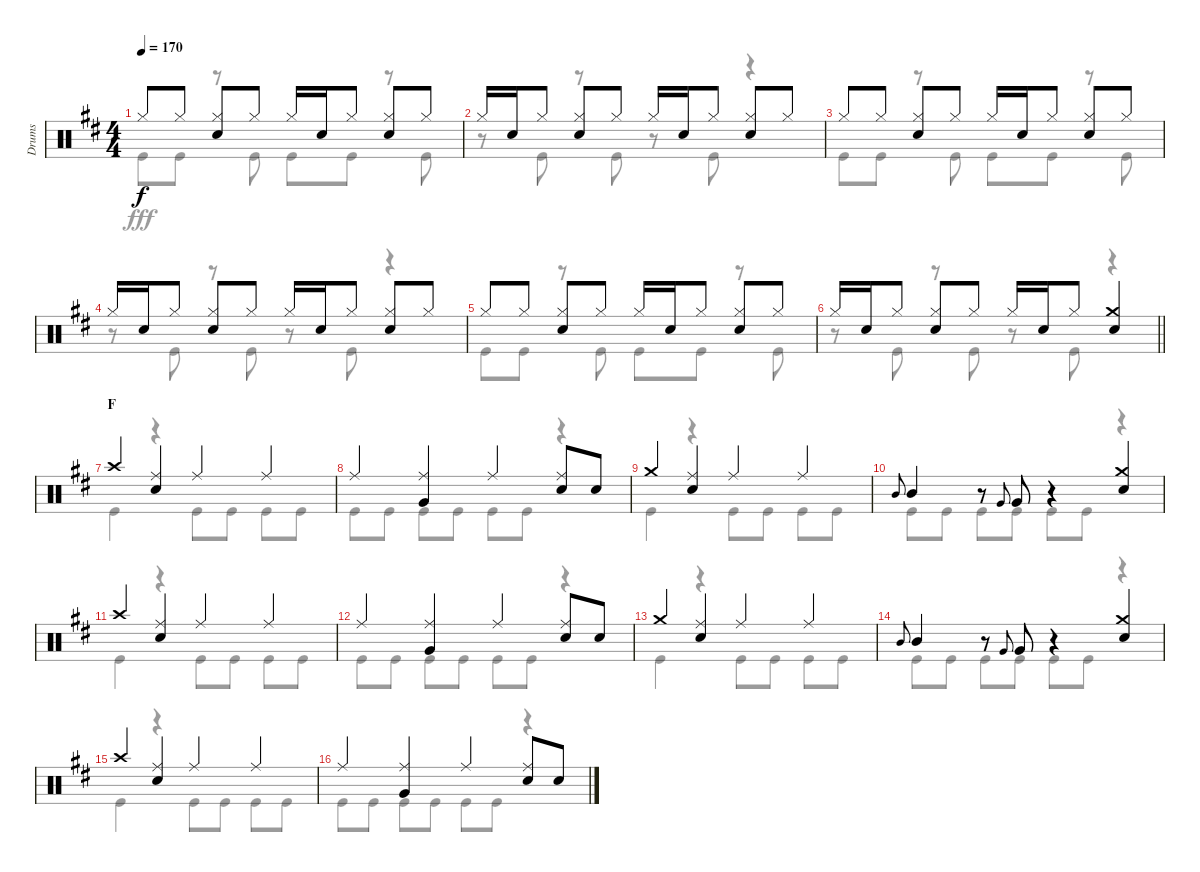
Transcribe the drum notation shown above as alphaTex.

\track ("Drums" "Drums") {instrument percussion}
\staff {score}
\articulation defaults
\voice
\ts (4 4)
\tempo 170
\clef neutral
\ks d "Hi-Hat (closed)".8{dy f} "Hi-Hat (closed)".8
("Hi-Hat (closed)" "Snare (hit) 2").8 "Hi-Hat (closed)".8 "Hi-Hat (closed)".16 "Snare (hit) 2".16 "Hi-Hat (closed)".8 ("Hi-Hat (closed)" "Snare (hit) 2").8 "Hi-Hat (closed)".8 |
"Hi-Hat (closed)".16 "Snare (hit) 2".16 "Hi-Hat (closed)".8 ("Hi-Hat (closed)" "Snare (hit) 2").8 "Hi-Hat (closed)".8 "Hi-Hat (closed)".16 "Snare (hit) 2".16 "Hi-Hat (closed)".8 ("Hi-Hat (closed)" "Snare (hit) 2").8 "Hi-Hat (closed)".8 |
"Hi-Hat (closed)".8 "Hi-Hat (closed)".8 ("Hi-Hat (closed)" "Snare (hit) 2").8 "Hi-Hat (closed)".8 "Hi-Hat (closed)".16 "Snare (hit) 2".16 "Hi-Hat (closed)".8 ("Hi-Hat (closed)" "Snare (hit) 2").8 "Hi-Hat (closed)".8 |
"Hi-Hat (closed)".16 "Snare (hit) 2".16 "Hi-Hat (closed)".8 ("Hi-Hat (closed)" "Snare (hit) 2").8 "Hi-Hat (closed)".8 "Hi-Hat (closed)".16 "Snare (hit) 2".16 "Hi-Hat (closed)".8 ("Hi-Hat (closed)" "Snare (hit) 2").8 "Hi-Hat (closed)".8 |
"Hi-Hat (closed)".8 "Hi-Hat (closed)".8 ("Hi-Hat (closed)" "Snare (hit) 2").8 "Hi-Hat (closed)".8 "Hi-Hat (closed)".16 "Snare (hit) 2".16 "Hi-Hat (closed)".8 ("Hi-Hat (closed)" "Snare (hit) 2").8 "Hi-Hat (closed)".8 |
\barLineRight lightlight "Hi-Hat (closed)".16 "Snare (hit) 2".16 "Hi-Hat (closed)".8
("Hi-Hat (closed)" "Snare (hit) 2").8 "Hi-Hat (closed)".8 "Hi-Hat (closed)".16 "Snare (hit) 2".16 "Hi-Hat (closed)".8 ("Crash medium (hit)" "Snare (hit) 2").4 |
\section ("" "F")
"Crash high (hit)".4 ("Ride (middle)" "Snare (hit) 2").4 "Ride (middle)".4 "Ride (middle)".4 |
"Ride (middle)".4 ("Ride (middle)" "Very Low Tom (hit)").4 "Ride (middle)".4 ("Ride (middle)" "Snare (hit) 2").8 "Snare (hit) 2".8 |
"Crash medium (hit)".4 ("Ride (middle)" "Snare (hit) 2").4 "Ride (middle)".4 "Ride (middle)".4 |
"Mid Tom (hit)".8{gr onbeat} "Mid Tom (hit)".4 r.8 "Very Low Tom (hit)".8{gr onbeat} "Very Low Tom (hit)".8 r.4 ("Crash medium (hit)" "Snare (hit) 2").4 |
"Crash high (hit)".4 ("Ride (middle)" "Snare (hit) 2").4 "Ride (middle)".4 "Ride (middle)".4 |
"Ride (middle)".4 ("Ride (middle)" "Very Low Tom (hit)").4 "Ride (middle)".4 ("Ride (middle)" "Snare (hit) 2").8 "Snare (hit) 2".8 |
"Crash medium (hit)".4 ("Ride (middle)" "Snare (hit) 2").4 "Ride (middle)".4 "Ride (middle)".4 |
"Mid Tom (hit)".8{gr onbeat} "Mid Tom (hit)".4 r.8 "Very Low Tom (hit)".8{gr onbeat} "Very Low Tom (hit)".8 r.4 ("Crash medium (hit)" "Snare (hit) 2").4 |
"Crash high (hit)".4 ("Ride (middle)" "Snare (hit) 2").4 "Ride (middle)".4 "Ride (middle)".4 |
"Ride (middle)".4 ("Ride (middle)" "Very Low Tom (hit)").4 "Ride (middle)".4 ("Ride (middle)" "Snare (hit) 2").8 "Snare (hit) 2".8
\voice
\clef neutral
\ottava regular
\simile none
\ks d "Kick (hit)".8{dy fff} "Kick (hit)".8
r.8 "Kick (hit)".8 "Kick (hit)".8 "Kick (hit)".8 r.8 "Kick (hit)".8 |
r.8 "Kick (hit)".8 r.8 "Kick (hit)".8 r.8 "Kick (hit)".8 r.4 |
"Kick (hit)".8 "Kick (hit)".8 r.8 "Kick (hit)".8 "Kick (hit)".8 "Kick (hit)".8 r.8 "Kick (hit)".8 |
r.8 "Kick (hit)".8 r.8 "Kick (hit)".8 r.8 "Kick (hit)".8 r.4 |
"Kick (hit)".8 "Kick (hit)".8 r.8 "Kick (hit)".8 "Kick (hit)".8 "Kick (hit)".8 r.8 "Kick (hit)".8 |
\barLineRight lightlight
r.8 "Kick (hit)".8 r.8 "Kick (hit)".8 r.8 "Kick (hit)".8 r.4 |
"Kick (hit)".4 r.4 "Kick (hit)".8 "Kick (hit)".8 "Kick (hit)".8 "Kick (hit)".8 |
"Kick (hit)".8 "Kick (hit)".8 "Kick (hit)".8 "Kick (hit)".8 "Kick (hit)".8 "Kick (hit)".8 r.4 |
"Kick (hit)".4 r.4 "Kick (hit)".8 "Kick (hit)".8 "Kick (hit)".8 "Kick (hit)".8 |
"Kick (hit)".8 "Kick (hit)".8 "Kick (hit)".8 "Kick (hit)".8 "Kick (hit)".8 "Kick (hit)".8 r.4 |
"Kick (hit)".4 r.4 "Kick (hit)".8 "Kick (hit)".8 "Kick (hit)".8 "Kick (hit)".8 |
"Kick (hit)".8 "Kick (hit)".8 "Kick (hit)".8 "Kick (hit)".8 "Kick (hit)".8 "Kick (hit)".8 r.4 |
"Kick (hit)".4 r.4 "Kick (hit)".8 "Kick (hit)".8 "Kick (hit)".8 "Kick (hit)".8 |
"Kick (hit)".8 "Kick (hit)".8 "Kick (hit)".8 "Kick (hit)".8 "Kick (hit)".8 "Kick (hit)".8 r.4 |
"Kick (hit)".4 r.4 "Kick (hit)".8 "Kick (hit)".8 "Kick (hit)".8 "Kick (hit)".8 |
"Kick (hit)".8 "Kick (hit)".8 "Kick (hit)".8 "Kick (hit)".8 "Kick (hit)".8 "Kick (hit)".8 r.4
